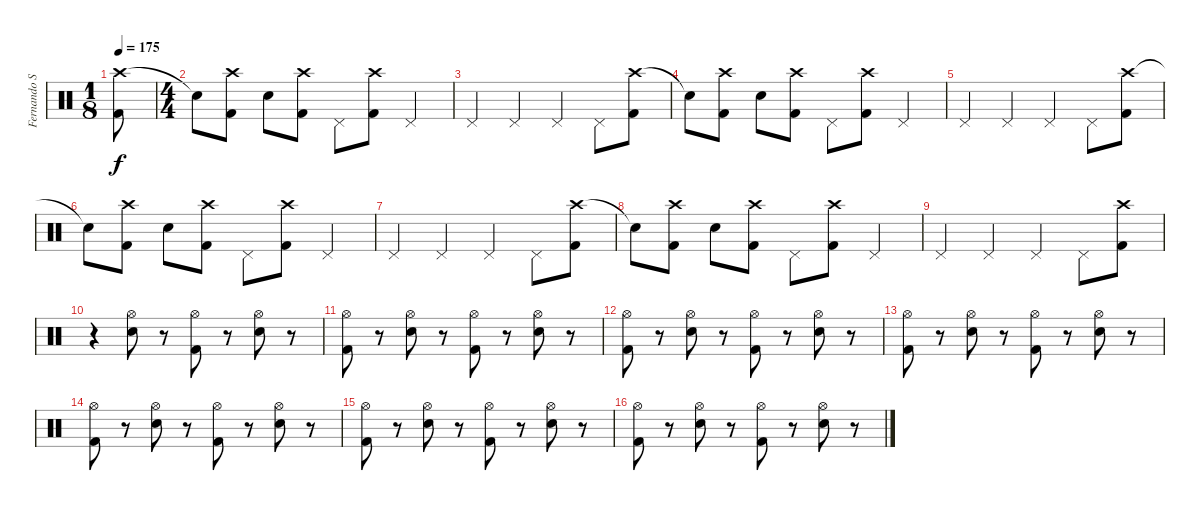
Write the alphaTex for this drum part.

\track ("Fernando Scarcella" "Fernando S") {instrument percussion}
\staff {score}
\articulation defaults
\ts (1 8)
\tempo 175
\clef neutral
\ks c
("Crash high (hit)" "Kick (hit) 2").8{dy f} |
\ts (4 4)
"Snare (hit)"{t}.8 ("Crash high (hit)" "Kick (hit) 2").8 "Snare (hit) 2".8 ("Crash high (hit)" "Kick (hit) 2").8 "Pedal Hi-Hat (hit)".8 ("Crash high (hit)" "Kick (hit) 2").8 "Pedal Hi-Hat (hit)".4 |
"Pedal Hi-Hat (hit)".4 "Pedal Hi-Hat (hit)".4 "Pedal Hi-Hat (hit)".4 "Pedal Hi-Hat (hit)".8 ("Crash high (hit)" "Kick (hit) 2").8 |
"Snare (hit)"{t}.8 ("Crash high (hit)" "Kick (hit) 2").8 "Snare (hit) 2".8 ("Crash high (hit)" "Kick (hit) 2").8 "Pedal Hi-Hat (hit)".8 ("Crash high (hit)" "Kick (hit) 2").8 "Pedal Hi-Hat (hit)".4 |
"Pedal Hi-Hat (hit)".4 "Pedal Hi-Hat (hit)".4 "Pedal Hi-Hat (hit)".4 "Pedal Hi-Hat (hit)".8 ("Crash high (hit)" "Kick (hit) 2").8 |
"Snare (hit)"{t}.8 ("Crash high (hit)" "Kick (hit) 2").8 "Snare (hit) 2".8 ("Crash high (hit)" "Kick (hit) 2").8 "Pedal Hi-Hat (hit)".8 ("Crash high (hit)" "Kick (hit) 2").8 "Pedal Hi-Hat (hit)".4 |
"Pedal Hi-Hat (hit)".4 "Pedal Hi-Hat (hit)".4 "Pedal Hi-Hat (hit)".4 "Pedal Hi-Hat (hit)".8 ("Crash high (hit)" "Kick (hit) 2").8 |
"Snare (hit)"{t}.8 ("Crash high (hit)" "Kick (hit) 2").8 "Snare (hit) 2".8 ("Crash high (hit)" "Kick (hit) 2").8 "Pedal Hi-Hat (hit)".8 ("Crash high (hit)" "Kick (hit) 2").8 "Pedal Hi-Hat (hit)".4 |
"Pedal Hi-Hat (hit)".4 "Pedal Hi-Hat (hit)".4 "Pedal Hi-Hat (hit)".4 "Pedal Hi-Hat (hit)".8 ("Crash high (hit)" "Kick (hit) 2").8 |
r.4 ("Hi-Hat (open)" "Snare (hit) 2").8 r.8 ("Hi-Hat (open)" "Kick (hit) 2").8 r.8 ("Hi-Hat (open)" "Snare (hit) 2").8 r.8 |
("Hi-Hat (open)" "Kick (hit) 2").8 r.8 ("Hi-Hat (open)" "Snare (hit) 2").8 r.8 ("Hi-Hat (open)" "Kick (hit) 2").8 r.8 ("Hi-Hat (open)" "Snare (hit) 2").8 r.8 |
("Hi-Hat (open)" "Kick (hit) 2").8 r.8 ("Hi-Hat (open)" "Snare (hit) 2").8 r.8 ("Hi-Hat (open)" "Kick (hit) 2").8 r.8 ("Hi-Hat (open)" "Snare (hit) 2").8 r.8 |
("Hi-Hat (open)" "Kick (hit) 2").8 r.8 ("Hi-Hat (open)" "Snare (hit) 2").8 r.8 ("Hi-Hat (open)" "Kick (hit) 2").8 r.8 ("Hi-Hat (open)" "Snare (hit) 2").8 r.8 |
("Hi-Hat (open)" "Kick (hit) 2").8 r.8 ("Hi-Hat (open)" "Snare (hit) 2").8 r.8 ("Hi-Hat (open)" "Kick (hit) 2").8 r.8 ("Hi-Hat (open)" "Snare (hit) 2").8 r.8 |
("Hi-Hat (open)" "Kick (hit) 2").8 r.8 ("Hi-Hat (open)" "Snare (hit) 2").8 r.8 ("Hi-Hat (open)" "Kick (hit) 2").8 r.8 ("Hi-Hat (open)" "Snare (hit) 2").8 r.8 |
("Hi-Hat (open)" "Kick (hit) 2").8 r.8 ("Hi-Hat (open)" "Snare (hit) 2").8 r.8 ("Hi-Hat (open)" "Kick (hit) 2").8 r.8 ("Hi-Hat (open)" "Snare (hit) 2").8 r.8
